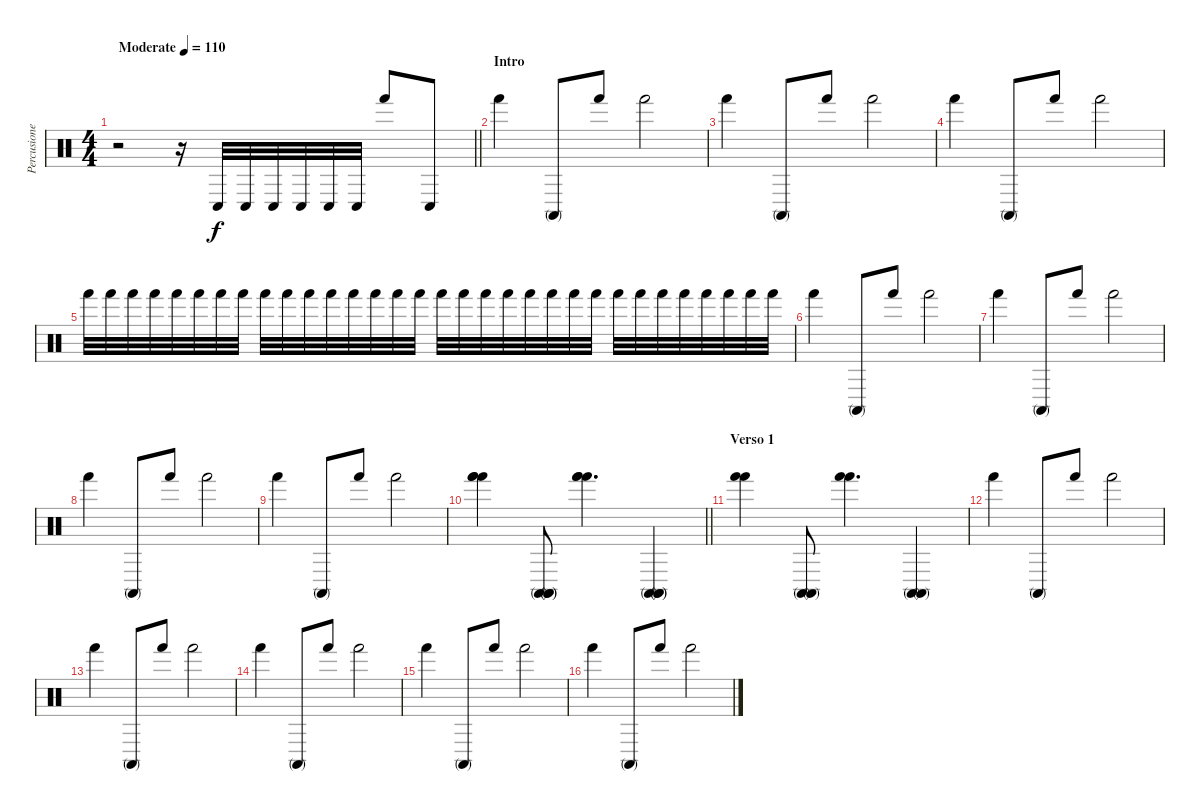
\track ("Percusiones" "Percusione") {instrument percussion}
\staff {score}
\articulation defaults
\ts (4 4)
\tempo (110 "Moderate")
\clef neutral
\barLineRight lightlight
\ks c
r.2{dy f} r.16 "Conga low (hit)".32 "Conga low (hit)".32 "Conga low (hit)".32 "Conga low (hit)".32 "Conga low (hit)".32 "Conga low (hit)".32 "Hand (hit)".8 "Conga low (hit)".8 |
\section ("" "Intro")
"Hand (hit)".4 "Conga high (mute)".8 "Hand (hit)".8 "Hand (hit)".2 |
"Hand (hit)".4 "Conga high (mute)".8 "Hand (hit)".8 "Hand (hit)".2 |
"Hand (hit)".4 "Conga high (mute)".8 "Hand (hit)".8 "Hand (hit)".2 |
"Hand (hit)".32 "Hand (hit)".32 "Hand (hit)".32 "Hand (hit)".32 "Hand (hit)".32 "Hand (hit)".32 "Hand (hit)".32 "Hand (hit)".32 "Hand (hit)".32 "Hand (hit)".32 "Hand (hit)".32 "Hand (hit)".32 "Hand (hit)".32 "Hand (hit)".32 "Hand (hit)".32 "Hand (hit)".32 "Hand (hit)".32 "Hand (hit)".32 "Hand (hit)".32 "Hand (hit)".32 "Hand (hit)".32 "Hand (hit)".32 "Hand (hit)".32 "Hand (hit)".32 "Hand (hit)".32 "Hand (hit)".32 "Hand (hit)".32 "Hand (hit)".32 "Hand (hit)".32 "Hand (hit)".32 "Hand (hit)".32 "Hand (hit)".32 |
"Hand (hit)".4 "Conga high (mute)".8 "Hand (hit)".8 "Hand (hit)".2 |
"Hand (hit)".4 "Conga high (mute)".8 "Hand (hit)".8 "Hand (hit)".2 |
"Hand (hit)".4 "Conga high (mute)".8 "Hand (hit)".8 "Hand (hit)".2 |
"Hand (hit)".4 "Conga high (mute)".8 "Hand (hit)".8 "Hand (hit)".2 |
\barLineRight lightlight
("Hand (hit)" "Hand (hit)" "Hand (hit)").4 ("Conga high (mute)" "Conga high (mute)" "Conga high (mute)").8 ("Hand (hit)" "Hand (hit)" "Hand (hit)").4{d} ("Conga high (mute)" "Conga high (mute)" "Conga high (mute)").4 |
\section ("" "Verso 1")
("Hand (hit)" "Hand (hit)").4 ("Conga high (mute)" "Conga high (mute)").8 ("Hand (hit)" "Hand (hit)").4{d} ("Conga high (mute)" "Conga high (mute)").4 |
"Hand (hit)".4 "Conga high (mute)".8 "Hand (hit)".8 "Hand (hit)".2 |
"Hand (hit)".4 "Conga high (mute)".8 "Hand (hit)".8 "Hand (hit)".2 |
"Hand (hit)".4 "Conga high (mute)".8 "Hand (hit)".8 "Hand (hit)".2 |
"Hand (hit)".4 "Conga high (mute)".8 "Hand (hit)".8 "Hand (hit)".2 |
"Hand (hit)".4 "Conga high (mute)".8 "Hand (hit)".8 "Hand (hit)".2
